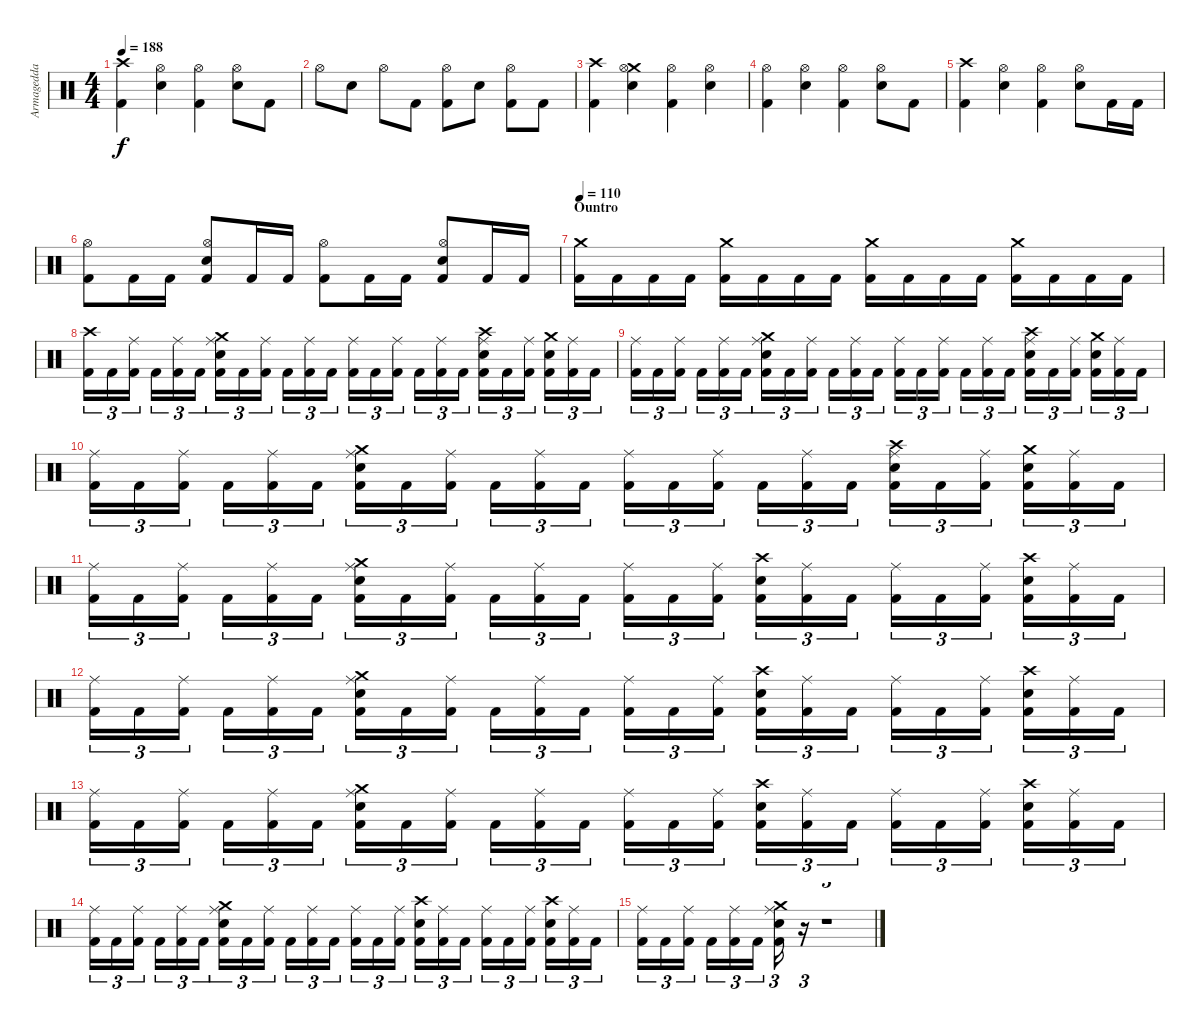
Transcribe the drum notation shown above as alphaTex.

\track ("Armagedda" "Armagedda") {instrument percussion}
\staff {score}
\articulation defaults
\ts (4 4)
\tempo 188
\clef neutral
\ks c
("Crash high (hit)" "Kick (hit) 2").4{dy f} ("Hi-Hat (open)" "Electric Snare (hit)").4 ("Hi-Hat (open)" "Kick (hit) 2").4 ("Hi-Hat (open)" "Electric Snare (hit)").8 "Kick (hit) 2".8 |
"Hi-Hat (open)".8 "Electric Snare (hit)".8 "Hi-Hat (open)".8 "Kick (hit) 2".8 ("Hi-Hat (open)" "Kick (hit) 2").8 "Electric Snare (hit)".8 ("Hi-Hat (open)" "Kick (hit) 2").8 "Kick (hit) 2".8 |
("Crash high (hit)" "Kick (hit) 2").4 ("Crash medium (hit)" "Hi-Hat (open)" "Electric Snare (hit)").4 ("Hi-Hat (open)" "Kick (hit) 2").4 ("Hi-Hat (open)" "Electric Snare (hit)").4 |
("Hi-Hat (open)" "Kick (hit) 2").4 ("Hi-Hat (open)" "Electric Snare (hit)").4 ("Hi-Hat (open)" "Kick (hit) 2").4 ("Hi-Hat (open)" "Electric Snare (hit)").8 "Kick (hit) 2".8 |
("Crash high (hit)" "Kick (hit) 2").4 ("Hi-Hat (open)" "Electric Snare (hit)").4 ("Hi-Hat (open)" "Kick (hit) 2").4 ("Hi-Hat (open)" "Electric Snare (hit)").8 "Kick (hit) 2".16 "Kick (hit) 2".16 |
("Hi-Hat (open)" "Kick (hit) 2").8 "Kick (hit) 2".16 "Kick (hit) 2".16 ("Hi-Hat (open)" "Electric Snare (hit)" "Kick (hit) 2").8 "Kick (hit) 2".16 "Kick (hit) 2".16 ("Hi-Hat (open)" "Kick (hit) 2").8 "Kick (hit) 2".16 "Kick (hit) 2".16 ("Hi-Hat (open)" "Electric Snare (hit)" "Kick (hit) 2").8 "Kick (hit) 2".16 "Kick (hit) 2".16 |
\section ("" "Ountro")
\tempo 110
("Crash medium (hit)" "Kick (hit) 2").16 "Kick (hit) 2".16 "Kick (hit) 2".16 "Kick (hit) 2".16 ("Crash medium (hit)" "Kick (hit) 2").16 "Kick (hit) 2".16 "Kick (hit) 2".16 "Kick (hit) 2".16 ("Crash medium (hit)" "Kick (hit) 2").16 "Kick (hit) 2".16 "Kick (hit) 2".16 "Kick (hit) 2".16 ("Crash medium (hit)" "Kick (hit) 2").16 "Kick (hit) 2".16 "Kick (hit) 2".16 "Kick (hit) 2".16 |
("Crash high (hit)" "Kick (hit) 2").16{tu (3 2)} "Kick (hit) 2".16{tu (3 2)} ("Ride (middle)" "Kick (hit) 2").16{tu (3 2)} "Kick (hit) 2".16{tu (3 2)} ("Ride (middle)" "Kick (hit) 2").16{tu (3 2)} "Kick (hit) 2".16{tu (3 2)} ("Crash medium (hit)" "Ride (middle)" "Electric Snare (hit)" "Kick (hit) 2").16{tu (3 2)} "Kick (hit) 2".16{tu (3 2)} ("Ride (middle)" "Kick (hit) 2").16{tu (3 2)} "Kick (hit) 2".16{tu (3 2)} ("Ride (middle)" "Kick (hit) 2").16{tu (3 2)} "Kick (hit) 2".16{tu (3 2)} ("Ride (middle)" "Kick (hit) 2").16{tu (3 2)} "Kick (hit) 2".16{tu (3 2)} ("Ride (middle)" "Kick (hit) 2").16{tu (3 2)} "Kick (hit) 2".16{tu (3 2)} ("Ride (middle)" "Kick (hit) 2").16{tu (3 2)} "Kick (hit) 2".16{tu (3 2)} ("Crash high (hit)" "Ride (middle)" "Electric Snare (hit)" "Kick (hit) 2").16{tu (3 2)} "Kick (hit) 2".16{tu (3 2)} ("Ride (middle)" "Kick (hit) 2").16{tu (3 2)} ("Crash medium (hit)" "Electric Snare (hit)" "Kick (hit) 2").16{tu (3 2)} ("Ride (middle)" "Kick (hit) 2").16{tu (3 2)} "Kick (hit) 2".16{tu (3 2)} |
("Ride (middle)" "Kick (hit) 2").16{tu (3 2)} "Kick (hit) 2".16{tu (3 2)} ("Ride (middle)" "Kick (hit) 2").16{tu (3 2)} "Kick (hit) 2".16{tu (3 2)} ("Ride (middle)" "Kick (hit) 2").16{tu (3 2)} "Kick (hit) 2".16{tu (3 2)} ("Crash medium (hit)" "Ride (middle)" "Electric Snare (hit)" "Kick (hit) 2").16{tu (3 2)} "Kick (hit) 2".16{tu (3 2)} ("Ride (middle)" "Kick (hit) 2").16{tu (3 2)} "Kick (hit) 2".16{tu (3 2)} ("Ride (middle)" "Kick (hit) 2").16{tu (3 2)} "Kick (hit) 2".16{tu (3 2)} ("Ride (middle)" "Kick (hit) 2").16{tu (3 2)} "Kick (hit) 2".16{tu (3 2)} ("Ride (middle)" "Kick (hit) 2").16{tu (3 2)} "Kick (hit) 2".16{tu (3 2)} ("Ride (middle)" "Kick (hit) 2").16{tu (3 2)} "Kick (hit) 2".16{tu (3 2)} ("Crash high (hit)" "Ride (middle)" "Electric Snare (hit)" "Kick (hit) 2").16{tu (3 2)} "Kick (hit) 2".16{tu (3 2)} ("Ride (middle)" "Kick (hit) 2").16{tu (3 2)} ("Crash medium (hit)" "Electric Snare (hit)" "Kick (hit) 2").16{tu (3 2)} ("Ride (middle)" "Kick (hit) 2").16{tu (3 2)} "Kick (hit) 2".16{tu (3 2)} |
("Ride (middle)" "Kick (hit) 2").16{tu (3 2)} "Kick (hit) 2".16{tu (3 2)} ("Ride (middle)" "Kick (hit) 2").16{tu (3 2)} "Kick (hit) 2".16{tu (3 2)} ("Ride (middle)" "Kick (hit) 2").16{tu (3 2)} "Kick (hit) 2".16{tu (3 2)} ("Crash medium (hit)" "Ride (middle)" "Electric Snare (hit)" "Kick (hit) 2").16{tu (3 2)} "Kick (hit) 2".16{tu (3 2)} ("Ride (middle)" "Kick (hit) 2").16{tu (3 2)} "Kick (hit) 2".16{tu (3 2)} ("Ride (middle)" "Kick (hit) 2").16{tu (3 2)} "Kick (hit) 2".16{tu (3 2)} ("Ride (middle)" "Kick (hit) 2").16{tu (3 2)} "Kick (hit) 2".16{tu (3 2)} ("Ride (middle)" "Kick (hit) 2").16{tu (3 2)} "Kick (hit) 2".16{tu (3 2)} ("Ride (middle)" "Kick (hit) 2").16{tu (3 2)} "Kick (hit) 2".16{tu (3 2)} ("Crash high (hit)" "Ride (middle)" "Electric Snare (hit)" "Kick (hit) 2").16{tu (3 2)} "Kick (hit) 2".16{tu (3 2)} ("Ride (middle)" "Kick (hit) 2").16{tu (3 2)} ("Crash medium (hit)" "Electric Snare (hit)" "Kick (hit) 2").16{tu (3 2)} ("Ride (middle)" "Kick (hit) 2").16{tu (3 2)} "Kick (hit) 2".16{tu (3 2)} |
("Ride (middle)" "Kick (hit) 2").16{tu (3 2)} "Kick (hit) 2".16{tu (3 2)} ("Ride (middle)" "Kick (hit) 2").16{tu (3 2)} "Kick (hit) 2".16{tu (3 2)} ("Ride (middle)" "Kick (hit) 2").16{tu (3 2)} "Kick (hit) 2".16{tu (3 2)} ("Crash medium (hit)" "Ride (middle)" "Electric Snare (hit)" "Kick (hit) 2").16{tu (3 2)} "Kick (hit) 2".16{tu (3 2)} ("Ride (middle)" "Kick (hit) 2").16{tu (3 2)} "Kick (hit) 2".16{tu (3 2)} ("Ride (middle)" "Kick (hit) 2").16{tu (3 2)} "Kick (hit) 2".16{tu (3 2)} ("Ride (middle)" "Kick (hit) 2").16{tu (3 2)} "Kick (hit) 2".16{tu (3 2)} ("Ride (middle)" "Kick (hit) 2").16{tu (3 2)} ("Crash high (hit)" "Electric Snare (hit)" "Kick (hit) 2").16{tu (3 2)} ("Ride (middle)" "Kick (hit) 2").16{tu (3 2)} "Kick (hit) 2".16{tu (3 2)} ("Ride (middle)" "Kick (hit) 2").16{tu (3 2)} "Kick (hit) 2".16{tu (3 2)} ("Ride (middle)" "Kick (hit) 2").16{tu (3 2)} ("Crash high (hit)" "Electric Snare (hit)" "Kick (hit) 2").16{tu (3 2)} ("Ride (middle)" "Kick (hit) 2").16{tu (3 2)} "Kick (hit) 2".16{tu (3 2)} |
("Ride (middle)" "Kick (hit) 2").16{tu (3 2)} "Kick (hit) 2".16{tu (3 2)} ("Ride (middle)" "Kick (hit) 2").16{tu (3 2)} "Kick (hit) 2".16{tu (3 2)} ("Ride (middle)" "Kick (hit) 2").16{tu (3 2)} "Kick (hit) 2".16{tu (3 2)} ("Crash medium (hit)" "Ride (middle)" "Electric Snare (hit)" "Kick (hit) 2").16{tu (3 2)} "Kick (hit) 2".16{tu (3 2)} ("Ride (middle)" "Kick (hit) 2").16{tu (3 2)} "Kick (hit) 2".16{tu (3 2)} ("Ride (middle)" "Kick (hit) 2").16{tu (3 2)} "Kick (hit) 2".16{tu (3 2)} ("Ride (middle)" "Kick (hit) 2").16{tu (3 2)} "Kick (hit) 2".16{tu (3 2)} ("Ride (middle)" "Kick (hit) 2").16{tu (3 2)} ("Crash high (hit)" "Electric Snare (hit)" "Kick (hit) 2").16{tu (3 2)} ("Ride (middle)" "Kick (hit) 2").16{tu (3 2)} "Kick (hit) 2".16{tu (3 2)} ("Ride (middle)" "Kick (hit) 2").16{tu (3 2)} "Kick (hit) 2".16{tu (3 2)} ("Ride (middle)" "Kick (hit) 2").16{tu (3 2)} ("Crash high (hit)" "Electric Snare (hit)" "Kick (hit) 2").16{tu (3 2)} ("Ride (middle)" "Kick (hit) 2").16{tu (3 2)} "Kick (hit) 2".16{tu (3 2)} |
("Ride (middle)" "Kick (hit) 2").16{tu (3 2)} "Kick (hit) 2".16{tu (3 2)} ("Ride (middle)" "Kick (hit) 2").16{tu (3 2)} "Kick (hit) 2".16{tu (3 2)} ("Ride (middle)" "Kick (hit) 2").16{tu (3 2)} "Kick (hit) 2".16{tu (3 2)} ("Crash medium (hit)" "Ride (middle)" "Electric Snare (hit)" "Kick (hit) 2").16{tu (3 2)} "Kick (hit) 2".16{tu (3 2)} ("Ride (middle)" "Kick (hit) 2").16{tu (3 2)} "Kick (hit) 2".16{tu (3 2)} ("Ride (middle)" "Kick (hit) 2").16{tu (3 2)} "Kick (hit) 2".16{tu (3 2)} ("Ride (middle)" "Kick (hit) 2").16{tu (3 2)} "Kick (hit) 2".16{tu (3 2)} ("Ride (middle)" "Kick (hit) 2").16{tu (3 2)} ("Crash high (hit)" "Electric Snare (hit)" "Kick (hit) 2").16{tu (3 2)} ("Ride (middle)" "Kick (hit) 2").16{tu (3 2)} "Kick (hit) 2".16{tu (3 2)} ("Ride (middle)" "Kick (hit) 2").16{tu (3 2)} "Kick (hit) 2".16{tu (3 2)} ("Ride (middle)" "Kick (hit) 2").16{tu (3 2)} ("Crash high (hit)" "Electric Snare (hit)" "Kick (hit) 2").16{tu (3 2)} ("Ride (middle)" "Kick (hit) 2").16{tu (3 2)} "Kick (hit) 2".16{tu (3 2)} |
("Ride (middle)" "Kick (hit) 2").16{tu (3 2)} "Kick (hit) 2".16{tu (3 2)} ("Ride (middle)" "Kick (hit) 2").16{tu (3 2)} "Kick (hit) 2".16{tu (3 2)} ("Ride (middle)" "Kick (hit) 2").16{tu (3 2)} "Kick (hit) 2".16{tu (3 2)} ("Crash medium (hit)" "Ride (middle)" "Electric Snare (hit)" "Kick (hit) 2").16{tu (3 2)} "Kick (hit) 2".16{tu (3 2)} ("Ride (middle)" "Kick (hit) 2").16{tu (3 2)} "Kick (hit) 2".16{tu (3 2)} ("Ride (middle)" "Kick (hit) 2").16{tu (3 2)} "Kick (hit) 2".16{tu (3 2)} ("Ride (middle)" "Kick (hit) 2").16{tu (3 2)} "Kick (hit) 2".16{tu (3 2)} ("Ride (middle)" "Kick (hit) 2").16{tu (3 2)} ("Crash high (hit)" "Electric Snare (hit)" "Kick (hit) 2").16{tu (3 2)} ("Ride (middle)" "Kick (hit) 2").16{tu (3 2)} "Kick (hit) 2".16{tu (3 2)} ("Ride (middle)" "Kick (hit) 2").16{tu (3 2)} "Kick (hit) 2".16{tu (3 2)} ("Ride (middle)" "Kick (hit) 2").16{tu (3 2)} ("Crash high (hit)" "Electric Snare (hit)" "Kick (hit) 2").16{tu (3 2)} ("Ride (middle)" "Kick (hit) 2").16{tu (3 2)} "Kick (hit) 2".16{tu (3 2)} |
("Ride (middle)" "Kick (hit) 2").16{tu (3 2)} "Kick (hit) 2".16{tu (3 2)} ("Ride (middle)" "Kick (hit) 2").16{tu (3 2)} "Kick (hit) 2".16{tu (3 2)} ("Ride (middle)" "Kick (hit) 2").16{tu (3 2)} "Kick (hit) 2".16{tu (3 2)} ("Crash medium (hit)" "Ride (middle)" "Electric Snare (hit)" "Kick (hit) 2").16{tu (3 2)} r.16{tu (3 2)} r.1{tu (3 2)}
